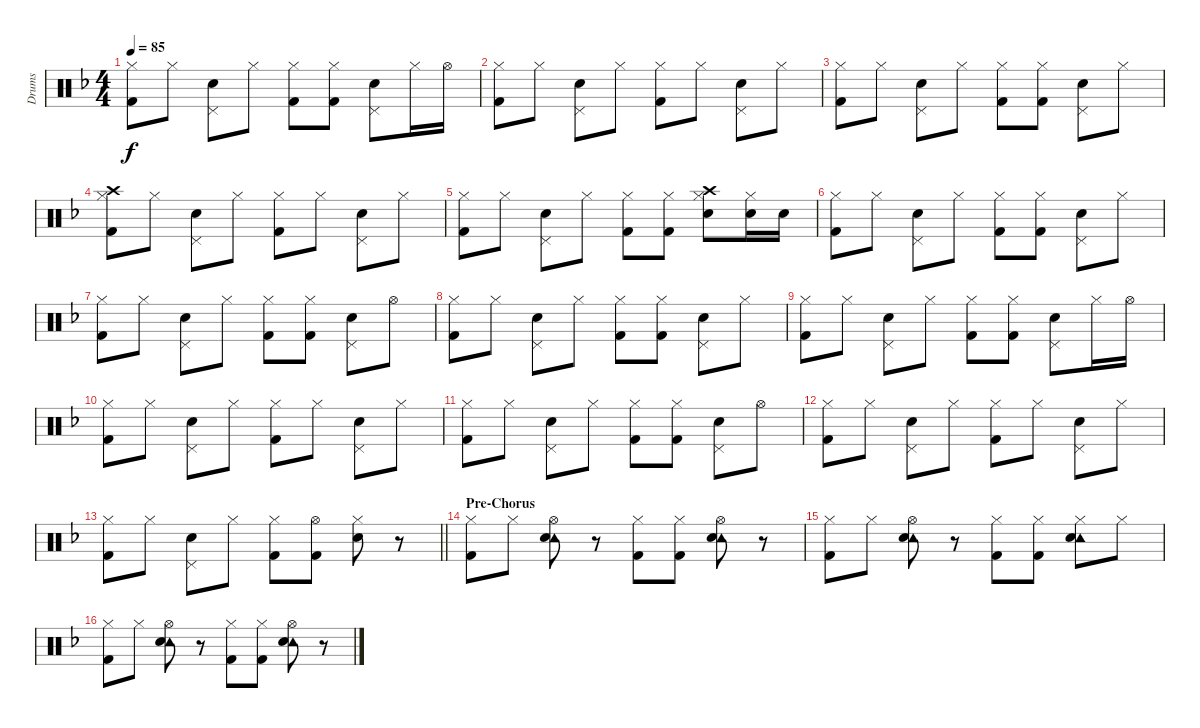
\track ("Drums" "Drums") {instrument percussion}
\staff
\articulation defaults
\ts (4 4)
\tempo 85
\clef neutral
\ks f
("Hi-Hat (closed)" "Kick (hit) 2").8{dy f} "Hi-Hat (closed)".8 ("Pedal Hi-Hat (hit)" "Snare (hit) 2").8 "Hi-Hat (closed)".8 ("Hi-Hat (closed)" "Kick (hit) 2").8 ("Hi-Hat (closed)" "Kick (hit) 2").8 ("Pedal Hi-Hat (hit)" "Snare (hit) 2").8 "Hi-Hat (closed)".16 "Hi-Hat (open)".16 |
("Hi-Hat (closed)" "Kick (hit) 2").8 "Hi-Hat (closed)".8 ("Pedal Hi-Hat (hit)" "Snare (hit) 2").8 "Hi-Hat (closed)".8 ("Hi-Hat (closed)" "Kick (hit) 2").8 "Hi-Hat (closed)".8 ("Pedal Hi-Hat (hit)" "Snare (hit) 2").8 "Hi-Hat (closed)".8 |
("Hi-Hat (closed)" "Kick (hit) 2").8 "Hi-Hat (closed)".8 ("Pedal Hi-Hat (hit)" "Snare (hit) 2").8 "Hi-Hat (closed)".8 ("Hi-Hat (closed)" "Kick (hit) 2").8 ("Hi-Hat (closed)" "Kick (hit) 2").8 ("Pedal Hi-Hat (hit)" "Snare (hit) 2").8 "Hi-Hat (closed)".8 |
("Crash high (hit)" "Hi-Hat (closed)" "Kick (hit) 2").8 "Hi-Hat (closed)".8 ("Pedal Hi-Hat (hit)" "Snare (hit) 2").8 "Hi-Hat (closed)".8 ("Hi-Hat (closed)" "Kick (hit) 2").8 "Hi-Hat (closed)".8 ("Pedal Hi-Hat (hit)" "Snare (hit) 2").8 "Hi-Hat (closed)".8 |
("Hi-Hat (closed)" "Kick (hit) 2").8 "Hi-Hat (closed)".8 ("Pedal Hi-Hat (hit)" "Snare (hit) 2").8 "Hi-Hat (closed)".8 ("Hi-Hat (closed)" "Kick (hit) 2").8 ("Hi-Hat (closed)" "Kick (hit) 2").8 ("Crash high (hit)" "Hi-Hat (closed)" "Snare (hit) 2").8 ("Hi-Hat (closed)" "Snare (hit) 2").16 "Snare (hit) 2".16 |
("Hi-Hat (closed)" "Kick (hit) 2").8 "Hi-Hat (closed)".8 ("Pedal Hi-Hat (hit)" "Snare (hit) 2").8 "Hi-Hat (closed)".8 ("Hi-Hat (closed)" "Kick (hit) 2").8 ("Hi-Hat (closed)" "Kick (hit) 2").8 ("Pedal Hi-Hat (hit)" "Snare (hit) 2").8 "Hi-Hat (closed)".8 |
("Hi-Hat (closed)" "Kick (hit) 2").8 "Hi-Hat (closed)".8 ("Pedal Hi-Hat (hit)" "Snare (hit) 2").8 "Hi-Hat (closed)".8 ("Hi-Hat (closed)" "Kick (hit) 2").8 ("Hi-Hat (closed)" "Kick (hit) 2").8 ("Pedal Hi-Hat (hit)" "Snare (hit) 2").8 "Hi-Hat (open)".8 |
("Hi-Hat (closed)" "Kick (hit) 2").8 "Hi-Hat (closed)".8 ("Pedal Hi-Hat (hit)" "Snare (hit) 2").8 "Hi-Hat (closed)".8 ("Hi-Hat (closed)" "Kick (hit) 2").8 ("Hi-Hat (closed)" "Kick (hit) 2").8 ("Pedal Hi-Hat (hit)" "Snare (hit) 2").8 "Hi-Hat (closed)".8 |
("Hi-Hat (closed)" "Kick (hit) 2").8 "Hi-Hat (closed)".8 ("Pedal Hi-Hat (hit)" "Snare (hit) 2").8 "Hi-Hat (closed)".8 ("Hi-Hat (closed)" "Kick (hit) 2").8 ("Hi-Hat (closed)" "Kick (hit) 2").8 ("Pedal Hi-Hat (hit)" "Snare (hit) 2").8 "Hi-Hat (closed)".16 "Hi-Hat (open)".16 |
("Hi-Hat (closed)" "Kick (hit) 2").8 "Hi-Hat (closed)".8 ("Pedal Hi-Hat (hit)" "Snare (hit) 2").8 "Hi-Hat (closed)".8 ("Hi-Hat (closed)" "Kick (hit) 2").8 "Hi-Hat (closed)".8 ("Pedal Hi-Hat (hit)" "Snare (hit) 2").8 "Hi-Hat (closed)".8 |
("Hi-Hat (closed)" "Kick (hit) 2").8 "Hi-Hat (closed)".8 ("Pedal Hi-Hat (hit)" "Snare (hit) 2").8 "Hi-Hat (closed)".8 ("Hi-Hat (closed)" "Kick (hit) 2").8 ("Hi-Hat (closed)" "Kick (hit) 2").8 ("Pedal Hi-Hat (hit)" "Snare (hit) 2").8 "Hi-Hat (open)".8 |
("Hi-Hat (closed)" "Kick (hit) 2").8 "Hi-Hat (closed)".8 ("Pedal Hi-Hat (hit)" "Snare (hit) 2").8 "Hi-Hat (closed)".8 ("Hi-Hat (closed)" "Kick (hit) 2").8 "Hi-Hat (closed)".8 ("Pedal Hi-Hat (hit)" "Snare (hit) 2").8 "Hi-Hat (closed)".8 |
\barLineRight lightlight
("Hi-Hat (closed)" "Kick (hit) 2").8 "Hi-Hat (closed)".8 ("Pedal Hi-Hat (hit)" "Snare (hit) 2").8 "Hi-Hat (closed)".8 ("Hi-Hat (closed)" "Kick (hit) 2").8 ("Hi-Hat (open)" "Kick (hit) 2").8 ("Hi-Hat (closed)" "Snare (hit) 2").8 r.8 |
\section ("" "Pre-Chorus")
("Hi-Hat (closed)" "Kick (hit) 2").8 "Hi-Hat (closed)".8 ("Tambourine (hit)" "Hi-Hat (open)" "Snare (hit) 2").8 r.8 ("Hi-Hat (closed)" "Kick (hit) 2").8 ("Hi-Hat (closed)" "Kick (hit) 2").8 ("Tambourine (hit)" "Hi-Hat (open)" "Snare (hit) 2").8 r.8 |
("Hi-Hat (closed)" "Kick (hit) 2").8 "Hi-Hat (closed)".8 ("Tambourine (hit)" "Hi-Hat (open)" "Snare (hit) 2").8 r.8 ("Hi-Hat (closed)" "Kick (hit) 2").8 ("Hi-Hat (closed)" "Kick (hit) 2").8 ("Tambourine (hit)" "Hi-Hat (closed)" "Snare (hit) 2").8 "Hi-Hat (closed)".8 |
("Hi-Hat (closed)" "Kick (hit) 2").8 "Hi-Hat (closed)".8 ("Tambourine (hit)" "Hi-Hat (open)" "Snare (hit) 2").8 r.8 ("Hi-Hat (closed)" "Kick (hit) 2").8 ("Hi-Hat (closed)" "Kick (hit) 2").8 ("Tambourine (hit)" "Hi-Hat (open)" "Snare (hit) 2").8 r.8
